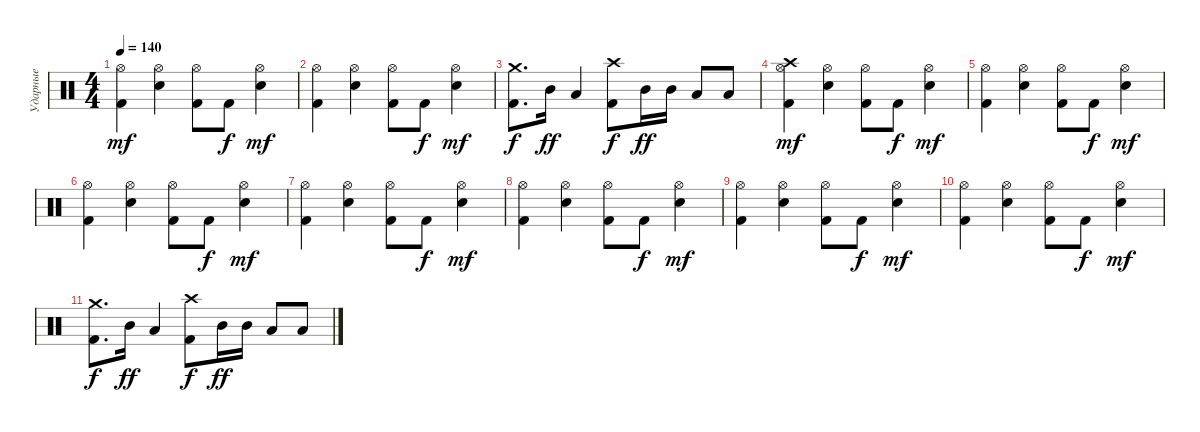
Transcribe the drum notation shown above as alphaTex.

\track ("Ударные" "Ударные") {instrument percussion}
\staff {score}
\articulation defaults
\ts (4 4)
\tempo 140
\clef neutral
\ks c
("Kick (hit) 2" "Hi-Hat (open)").4{dy mf} ("Snare (hit) 2" "Hi-Hat (open)").4 ("Kick (hit) 2" "Hi-Hat (open)").8 "Kick (hit) 2".8{dy f} ("Snare (hit) 2" "Hi-Hat (open)").4{dy mf} |
("Kick (hit) 2" "Hi-Hat (open)").4 ("Snare (hit) 2" "Hi-Hat (open)").4 ("Kick (hit) 2" "Hi-Hat (open)").8 "Kick (hit) 2".8{dy f} ("Snare (hit) 2" "Hi-Hat (open)").4{dy mf} |
("Kick (hit) 2" "Crash medium (hit)").8{d dy f} "Mid Tom (hit)".16{dy ff} "Low Tom (hit)".4 ("Kick (hit) 2" "Crash high (hit)").8{dy f} "Mid Tom (hit)".16{dy ff} "Mid Tom (hit)".16 "Low Tom (hit)".8 "Low Floor Tom (hit)".8 |
("Kick (hit) 2" "Hi-Hat (open)" "Crash high (hit)").4{dy mf} ("Snare (hit) 2" "Hi-Hat (open)").4 ("Kick (hit) 2" "Hi-Hat (open)").8 "Kick (hit) 2".8{dy f} ("Snare (hit) 2" "Hi-Hat (open)").4{dy mf} |
("Kick (hit) 2" "Hi-Hat (open)").4 ("Snare (hit) 2" "Hi-Hat (open)").4 ("Kick (hit) 2" "Hi-Hat (open)").8 "Kick (hit) 2".8{dy f} ("Snare (hit) 2" "Hi-Hat (open)").4{dy mf} |
("Kick (hit) 2" "Hi-Hat (open)").4 ("Snare (hit) 2" "Hi-Hat (open)").4 ("Kick (hit) 2" "Hi-Hat (open)").8 "Kick (hit) 2".8{dy f} ("Snare (hit) 2" "Hi-Hat (open)").4{dy mf} |
("Kick (hit) 2" "Hi-Hat (open)").4 ("Snare (hit) 2" "Hi-Hat (open)").4 ("Kick (hit) 2" "Hi-Hat (open)").8 "Kick (hit) 2".8{dy f} ("Snare (hit) 2" "Hi-Hat (open)").4{dy mf} |
("Kick (hit) 2" "Hi-Hat (open)").4 ("Snare (hit) 2" "Hi-Hat (open)").4 ("Kick (hit) 2" "Hi-Hat (open)").8 "Kick (hit) 2".8{dy f} ("Snare (hit) 2" "Hi-Hat (open)").4{dy mf} |
("Kick (hit) 2" "Hi-Hat (open)").4 ("Snare (hit) 2" "Hi-Hat (open)").4 ("Kick (hit) 2" "Hi-Hat (open)").8 "Kick (hit) 2".8{dy f} ("Snare (hit) 2" "Hi-Hat (open)").4{dy mf} |
("Kick (hit) 2" "Hi-Hat (open)").4 ("Snare (hit) 2" "Hi-Hat (open)").4 ("Kick (hit) 2" "Hi-Hat (open)").8 "Kick (hit) 2".8{dy f} ("Snare (hit) 2" "Hi-Hat (open)").4{dy mf} |
("Kick (hit) 2" "Crash medium (hit)").8{d dy f} "Mid Tom (hit)".16{dy ff} "Low Tom (hit)".4 ("Kick (hit) 2" "Crash high (hit)").8{dy f} "Mid Tom (hit)".16{dy ff} "Mid Tom (hit)".16 "Low Tom (hit)".8 "Low Floor Tom (hit)".8
